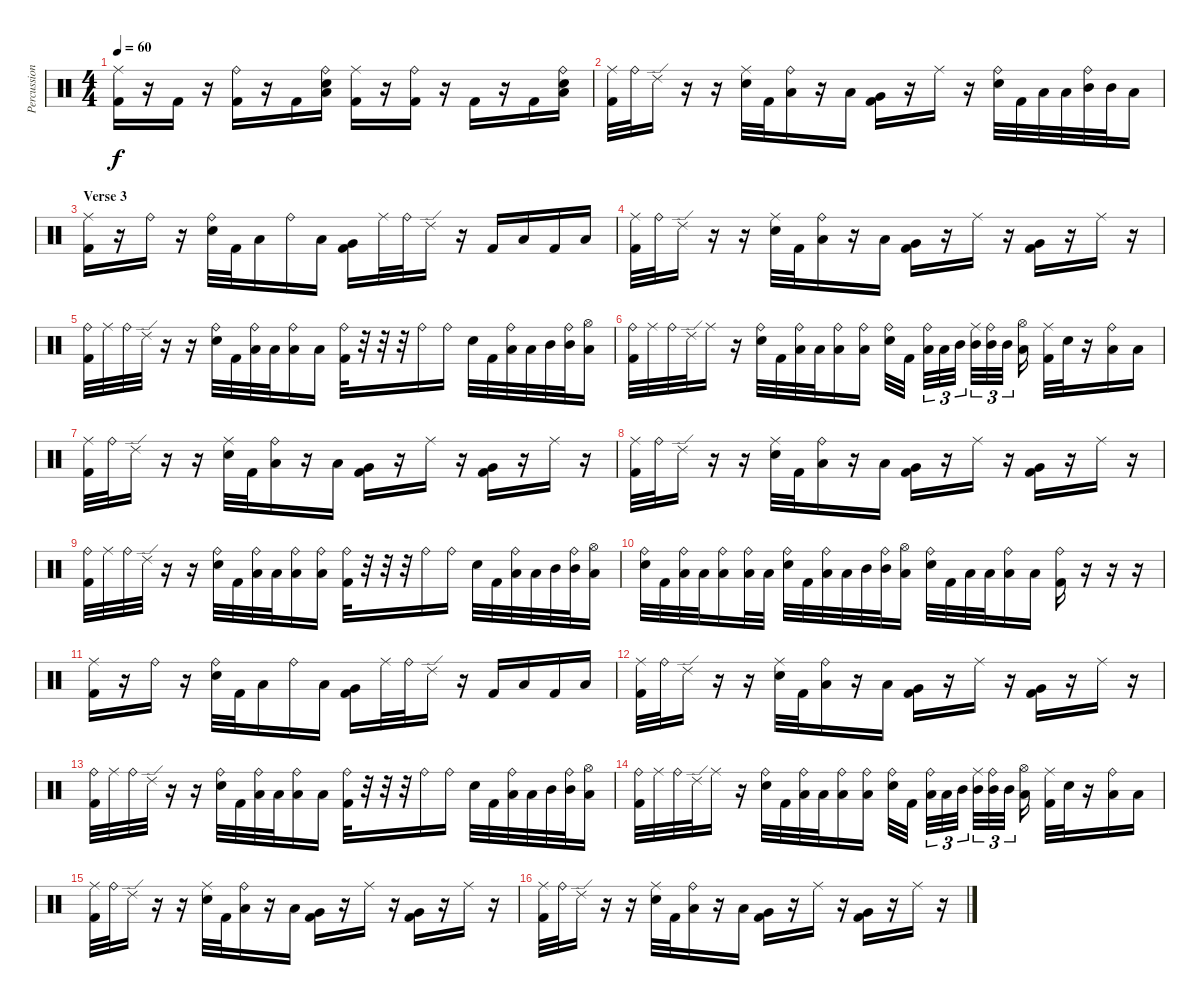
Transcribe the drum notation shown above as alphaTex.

\track ("Percussion" "Percussion") {instrument percussion}
\staff {score}
\articulation defaults
\ts (4 4)
\tempo 60
\clef neutral
\ks c
("Ride (middle)" "Kick (hit) 2").16{dy f} r.16 "Kick (hit) 2".16 r.16 ("Ride (bell)" "Kick (hit) 2").16 r.16 "Kick (hit) 2".16 ("Ride (bell)" "Low Tom (hit)" "Electric Snare (hit)").16 ("Ride (middle)" "Kick (hit) 2").16 r.16 ("Ride (bell)" "Kick (hit) 2").16 r.16 "Kick (hit) 2".16 r.16 "Kick (hit) 2".16 ("Ride (bell)" "Low Tom (hit)" "Electric Snare (hit)").16 |
("Ride (middle)" "Kick (hit) 2").32 "Ride (bell)".32 "Ride (edge) 2".16 r.16 r.16 ("Ride (middle)" "Electric Snare (hit)").32 "Kick (hit) 2".32 ("Ride (bell)" "Low Tom (hit)").16 r.16 "Low Tom (hit)".16 ("Very Low Tom (hit)" "Kick (hit) 2").16 r.16 "Ride (middle)".16 r.16 ("Ride (bell)" "Electric Snare (hit)").32 "Kick (hit) 2".32 "Low Tom (hit)".32 "Low Tom (hit)".32 ("Ride (bell)" "Mid Tom (hit)").32 "Mid Tom (hit)".32 "Low Tom (hit)".16 |
\section ("" "Verse 3")
("Ride (middle)" "Kick (hit) 2").16 r.16 "Ride (bell)".16 r.16 ("Ride (bell)" "Electric Snare (hit)").32 "Kick (hit) 2".32 "Low Tom (hit)".16 "Ride (bell)".16 "Low Tom (hit)".16 ("Very Low Tom (hit)" "Kick (hit) 2").16 "Ride (middle)".32 "Ride (bell)".32 "Ride (edge) 2".16 r.16 "Kick (hit) 2".16 "Low Tom (hit)".16 "Kick (hit) 2".16 "Low Tom (hit)".16 |
("Ride (middle)" "Kick (hit) 2").32 "Ride (bell)".32 "Ride (edge) 2".16 r.16 r.16 ("Ride (middle)" "Electric Snare (hit)").32 "Kick (hit) 2".32 ("Ride (bell)" "Low Tom (hit)").16 r.16 "Low Tom (hit)".16 ("Very Low Tom (hit)" "Kick (hit) 2").16 r.16 "Ride (middle)".16 r.16 ("Very Low Tom (hit)" "Kick (hit) 2").16 r.16 "Ride (middle)".16 r.16 |
("Ride (bell)" "Kick (hit) 2").32 "Ride (middle)".32 "Ride (bell)".32 "Ride (edge) 2".32 r.16 r.16 ("Ride (bell)" "Electric Snare (hit)").32 "Kick (hit) 2".32 ("Ride (bell)" "Low Tom (hit)").32 "Low Tom (hit)".32 ("Ride (bell)" "Low Tom (hit)").16 "Low Tom (hit)".16 ("Ride (bell)" "Kick (hit) 2").32 r.32 r.32 r.32 "Ride (bell)".16 "Ride (bell)".16 "Electric Snare (hit)".32 "Kick (hit) 2".32 ("Ride (bell)" "Low Tom (hit)").32 "Low Tom (hit)".32 "Mid Tom (hit)".32 ("Ride (bell)" "Mid Tom (hit)").32 ("Hi-Hat (open)" "Low Tom (hit)").16 |
("Ride (bell)" "Kick (hit) 2").32 "Ride (middle)".32 "Ride (bell)".32 "Ride (edge) 2".32 "Ride (middle)".16 r.16 ("Ride (bell)" "Electric Snare (hit)").32 "Kick (hit) 2".32 ("Ride (bell)" "Low Tom (hit)").32 "Low Tom (hit)".32 ("Ride (bell)" "Low Tom (hit)").16 ("Ride (bell)" "Low Tom (hit)").16 ("Ride (bell)" "Electric Snare (hit)").32 "Kick (hit) 2".32 ("Ride (bell)" "Low Tom (hit)").32{tu (3 2)} "Low Tom (hit)".32{tu (3 2)} "Mid Tom (hit)".32{tu (3 2)} ("Ride (middle)" "Mid Tom (hit)").32{tu (3 2)} ("Ride (bell)" "Mid Tom (hit)").32{tu (3 2)} "Mid Tom (hit)".32{tu (3 2)} ("Hi-Hat (open)" "Low Tom (hit)").16 ("Ride (middle)" "Kick (hit) 2").32 "Electric Snare (hit)".32 r.16 ("Ride (bell)" "Low Tom (hit)").16 "Low Tom (hit)".16 |
("Ride (middle)" "Kick (hit) 2").32 "Ride (bell)".32 "Ride (edge) 2".16 r.16 r.16 ("Ride (middle)" "Electric Snare (hit)").32 "Kick (hit) 2".32 ("Ride (bell)" "Low Tom (hit)").16 r.16 "Low Tom (hit)".16 ("Very Low Tom (hit)" "Kick (hit) 2").16 r.16 "Ride (middle)".16 r.16 ("Very Low Tom (hit)" "Kick (hit) 2").16 r.16 "Ride (middle)".16 r.16 |
("Ride (middle)" "Kick (hit) 2").32 "Ride (bell)".32 "Ride (edge) 2".16 r.16 r.16 ("Ride (middle)" "Electric Snare (hit)").32 "Kick (hit) 2".32 ("Ride (bell)" "Low Tom (hit)").16 r.16 "Low Tom (hit)".16 ("Very Low Tom (hit)" "Kick (hit) 2").16 r.16 "Ride (middle)".16 r.16 ("Very Low Tom (hit)" "Kick (hit) 2").16 r.16 "Ride (middle)".16 r.16 |
("Ride (bell)" "Kick (hit) 2").32 "Ride (middle)".32 "Ride (bell)".32 "Ride (edge) 2".32 r.16 r.16 ("Ride (bell)" "Electric Snare (hit)").32 "Kick (hit) 2".32 ("Ride (bell)" "Low Tom (hit)").32 "Low Tom (hit)".32 ("Ride (bell)" "Low Tom (hit)").16 ("Ride (bell)" "Low Tom (hit)").16 ("Ride (bell)" "Kick (hit) 2").32 r.32 r.32 r.32 "Ride (bell)".16 "Ride (bell)".16 "Electric Snare (hit)".32 "Kick (hit) 2".32 ("Ride (bell)" "Low Tom (hit)").32 "Low Tom (hit)".32 "Mid Tom (hit)".32 ("Ride (bell)" "Mid Tom (hit)").32 ("Hi-Hat (open)" "Low Tom (hit)").16 |
("Ride (bell)" "Electric Snare (hit)").32 "Kick (hit) 2".32 ("Ride (bell)" "Low Tom (hit)").32 "Low Tom (hit)".32 ("Ride (bell)" "Low Tom (hit)").16 ("Ride (bell)" "Low Tom (hit)").32 "Low Tom (hit)".32 ("Ride (bell)" "Electric Snare (hit)").32 "Kick (hit) 2".32 ("Ride (bell)" "Low Tom (hit)").32 "Low Tom (hit)".32 "Mid Tom (hit)".32 ("Ride (bell)" "Mid Tom (hit)").32 ("Hi-Hat (open)" "Low Tom (hit)").16 ("Ride (bell)" "Electric Snare (hit)").32 "Kick (hit) 2".32 "Low Tom (hit)".32 "Low Tom (hit)".32 ("Ride (bell)" "Low Tom (hit)").16 "Low Tom (hit)".16 ("Ride (bell)" "Kick (hit) 2").16 r.16 r.16 r.16 |
("Ride (middle)" "Kick (hit) 2").16 r.16 "Ride (bell)".16 r.16 ("Ride (bell)" "Electric Snare (hit)").32 "Kick (hit) 2".32 "Low Tom (hit)".16 "Ride (bell)".16 "Low Tom (hit)".16 ("Very Low Tom (hit)" "Kick (hit) 2").16 "Ride (middle)".32 "Ride (bell)".32 "Ride (edge) 2".16 r.16 "Kick (hit) 2".16 "Low Tom (hit)".16 "Kick (hit) 2".16 "Low Tom (hit)".16 |
("Ride (middle)" "Kick (hit) 2").32 "Ride (bell)".32 "Ride (edge) 2".16 r.16 r.16 ("Ride (middle)" "Electric Snare (hit)").32 "Kick (hit) 2".32 ("Ride (bell)" "Low Tom (hit)").16 r.16 "Low Tom (hit)".16 ("Very Low Tom (hit)" "Kick (hit) 2").16 r.16 "Ride (middle)".16 r.16 ("Very Low Tom (hit)" "Kick (hit) 2").16 r.16 "Ride (middle)".16 r.16 |
("Ride (bell)" "Kick (hit) 2").32 "Ride (middle)".32 "Ride (bell)".32 "Ride (edge) 2".32 r.16 r.16 ("Ride (bell)" "Electric Snare (hit)").32 "Kick (hit) 2".32 ("Ride (bell)" "Low Tom (hit)").32 "Low Tom (hit)".32 ("Ride (bell)" "Low Tom (hit)").16 "Low Tom (hit)".16 ("Ride (bell)" "Kick (hit) 2").32 r.32 r.32 r.32 "Ride (bell)".16 "Ride (bell)".16 "Electric Snare (hit)".32 "Kick (hit) 2".32 ("Ride (bell)" "Low Tom (hit)").32 "Low Tom (hit)".32 "Mid Tom (hit)".32 ("Ride (bell)" "Mid Tom (hit)").32 ("Hi-Hat (open)" "Low Tom (hit)").16 |
("Ride (bell)" "Kick (hit) 2").32 "Ride (middle)".32 "Ride (bell)".32 "Ride (edge) 2".32 "Ride (middle)".16 r.16 ("Ride (bell)" "Electric Snare (hit)").32 "Kick (hit) 2".32 ("Ride (bell)" "Low Tom (hit)").32 "Low Tom (hit)".32 ("Ride (bell)" "Low Tom (hit)").16 ("Ride (bell)" "Low Tom (hit)").16 ("Ride (bell)" "Electric Snare (hit)").32 "Kick (hit) 2".32 ("Ride (bell)" "Low Tom (hit)").32{tu (3 2)} "Low Tom (hit)".32{tu (3 2)} "Mid Tom (hit)".32{tu (3 2)} ("Ride (middle)" "Mid Tom (hit)").32{tu (3 2)} ("Ride (bell)" "Mid Tom (hit)").32{tu (3 2)} "Mid Tom (hit)".32{tu (3 2)} ("Hi-Hat (open)" "Low Tom (hit)").16 ("Ride (middle)" "Kick (hit) 2").32 "Electric Snare (hit)".32 r.16 ("Ride (bell)" "Low Tom (hit)").16 "Low Tom (hit)".16 |
("Ride (middle)" "Kick (hit) 2").32 "Ride (bell)".32 "Ride (edge) 2".16 r.16 r.16 ("Ride (middle)" "Electric Snare (hit)").32 "Kick (hit) 2".32 ("Ride (bell)" "Low Tom (hit)").16 r.16 "Low Tom (hit)".16 ("Very Low Tom (hit)" "Kick (hit) 2").16 r.16 "Ride (middle)".16 r.16 ("Very Low Tom (hit)" "Kick (hit) 2").16 r.16 "Ride (middle)".16 r.16 |
("Ride (middle)" "Kick (hit) 2").32 "Ride (bell)".32 "Ride (edge) 2".16 r.16 r.16 ("Ride (middle)" "Electric Snare (hit)").32 "Kick (hit) 2".32 ("Ride (bell)" "Low Tom (hit)").16 r.16 "Low Tom (hit)".16 ("Very Low Tom (hit)" "Kick (hit) 2").16 r.16 "Ride (middle)".16 r.16 ("Very Low Tom (hit)" "Kick (hit) 2").16 r.16 "Ride (middle)".16 r.16
